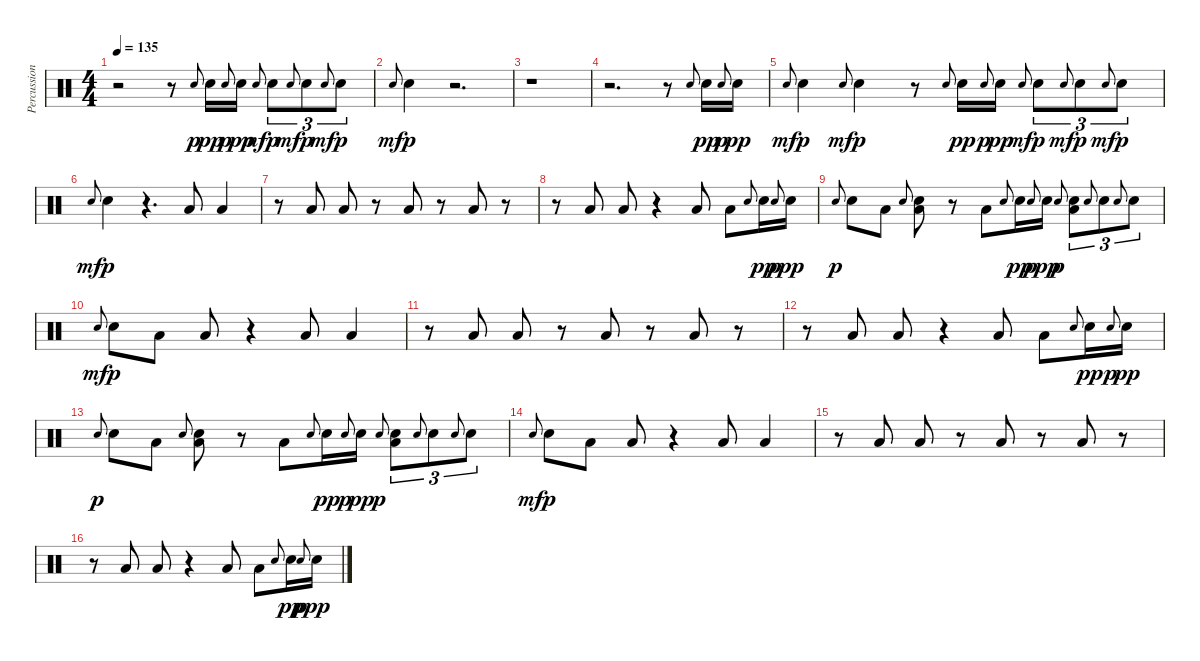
\track ("Percussion" "Percussion") {instrument percussion}
\staff {score}
\articulation defaults
\ts (4 4)
\tempo 135
\clef neutral
\ks c
r.2{dy p} r.8 "Electric Snare (hit)".8{gr onbeat} "Electric Snare (hit)".16{dy pp} "Electric Snare (hit)".8{gr onbeat dy p} "Electric Snare (hit)".16{dy pp} "Electric Snare (hit)".8{gr onbeat dy mf} "Electric Snare (hit)".8{tu (3 2) dy p} "Electric Snare (hit)".8{gr onbeat dy mf} "Electric Snare (hit)".8{tu (3 2) dy p} "Electric Snare (hit)".8{gr onbeat dy mf} "Electric Snare (hit)".8{tu (3 2) dy p} |
"Electric Snare (hit)".8{gr onbeat dy mf} "Electric Snare (hit)".4{dy p} r.2{d} |
r.1 |
r.2{d} r.8 "Electric Snare (hit)".8{gr onbeat} "Electric Snare (hit)".16{dy pp} "Electric Snare (hit)".8{gr onbeat dy p} "Electric Snare (hit)".16{dy pp} |
"Electric Snare (hit)".8{gr onbeat dy mf} "Electric Snare (hit)".4{dy p} "Electric Snare (hit)".8{gr onbeat dy mf} "Electric Snare (hit)".4{dy p} r.8 "Electric Snare (hit)".8{gr onbeat} "Electric Snare (hit)".16{dy pp} "Electric Snare (hit)".8{gr onbeat dy p} "Electric Snare (hit)".16{dy pp} "Electric Snare (hit)".8{gr onbeat dy mf} "Electric Snare (hit)".8{tu (3 2) dy p} "Electric Snare (hit)".8{gr onbeat dy mf} "Electric Snare (hit)".8{tu (3 2) dy p} "Electric Snare (hit)".8{gr onbeat dy mf} "Electric Snare (hit)".8{tu (3 2) dy p} |
"Electric Snare (hit)".8{gr onbeat dy mf} "Electric Snare (hit)".4{dy p} r.4{d} "Low Floor Tom (hit)".8 "Low Floor Tom (hit)".4 |
r.8 "Low Floor Tom (hit)".8 "Low Floor Tom (hit)".8 r.8 "Low Floor Tom (hit)".8 r.8 "Low Floor Tom (hit)".8 r.8 |
r.8 "Low Floor Tom (hit)".8 "Low Floor Tom (hit)".8 r.4 "Low Floor Tom (hit)".8 "Low Floor Tom (hit)".8 "Electric Snare (hit)".8{gr onbeat} "Electric Snare (hit)".16{dy pp} "Electric Snare (hit)".8{gr onbeat dy p} "Electric Snare (hit)".16{dy pp} |
"Electric Snare (hit)".8{gr onbeat dy p} "Electric Snare (hit)".8 "Low Floor Tom (hit)".8 "Electric Snare (hit)".8{gr onbeat} ("Electric Snare (hit)" "Low Floor Tom (hit)").8 r.8 "Low Floor Tom (hit)".8 "Electric Snare (hit)".8{gr onbeat} "Electric Snare (hit)".16{dy pp} "Electric Snare (hit)".8{gr onbeat dy p} "Electric Snare (hit)".16{dy pp} "Electric Snare (hit)".8{gr onbeat dy p} ("Electric Snare (hit)" "Low Floor Tom (hit)").8{tu (3 2)} "Electric Snare (hit)".8{gr onbeat} "Electric Snare (hit)".8{tu (3 2)} "Electric Snare (hit)".8{gr onbeat} "Electric Snare (hit)".8{tu (3 2)} |
"Electric Snare (hit)".8{gr onbeat dy mf} "Electric Snare (hit)".8{dy p} "Low Floor Tom (hit)".8 "Low Floor Tom (hit)".8 r.4 "Low Floor Tom (hit)".8 "Low Floor Tom (hit)".4 |
r.8 "Low Floor Tom (hit)".8 "Low Floor Tom (hit)".8 r.8 "Low Floor Tom (hit)".8 r.8 "Low Floor Tom (hit)".8 r.8 |
r.8 "Low Floor Tom (hit)".8 "Low Floor Tom (hit)".8 r.4 "Low Floor Tom (hit)".8 "Low Floor Tom (hit)".8 "Electric Snare (hit)".8{gr onbeat} "Electric Snare (hit)".16{dy pp} "Electric Snare (hit)".8{gr onbeat dy p} "Electric Snare (hit)".16{dy pp} |
"Electric Snare (hit)".8{gr onbeat dy p} "Electric Snare (hit)".8 "Low Floor Tom (hit)".8 "Electric Snare (hit)".8{gr onbeat} ("Electric Snare (hit)" "Low Floor Tom (hit)").8 r.8 "Low Floor Tom (hit)".8 "Electric Snare (hit)".8{gr onbeat} "Electric Snare (hit)".16{dy pp} "Electric Snare (hit)".8{gr onbeat dy p} "Electric Snare (hit)".16{dy pp} "Electric Snare (hit)".8{gr onbeat dy p} ("Electric Snare (hit)" "Low Floor Tom (hit)").8{tu (3 2)} "Electric Snare (hit)".8{gr onbeat} "Electric Snare (hit)".8{tu (3 2)} "Electric Snare (hit)".8{gr onbeat} "Electric Snare (hit)".8{tu (3 2)} |
"Electric Snare (hit)".8{gr onbeat dy mf} "Electric Snare (hit)".8{dy p} "Low Floor Tom (hit)".8 "Low Floor Tom (hit)".8 r.4 "Low Floor Tom (hit)".8 "Low Floor Tom (hit)".4 |
r.8 "Low Floor Tom (hit)".8 "Low Floor Tom (hit)".8 r.8 "Low Floor Tom (hit)".8 r.8 "Low Floor Tom (hit)".8 r.8 |
r.8 "Low Floor Tom (hit)".8 "Low Floor Tom (hit)".8 r.4 "Low Floor Tom (hit)".8 "Low Floor Tom (hit)".8 "Electric Snare (hit)".8{gr onbeat} "Electric Snare (hit)".16{dy pp} "Electric Snare (hit)".8{gr onbeat dy p} "Electric Snare (hit)".16{dy pp}
